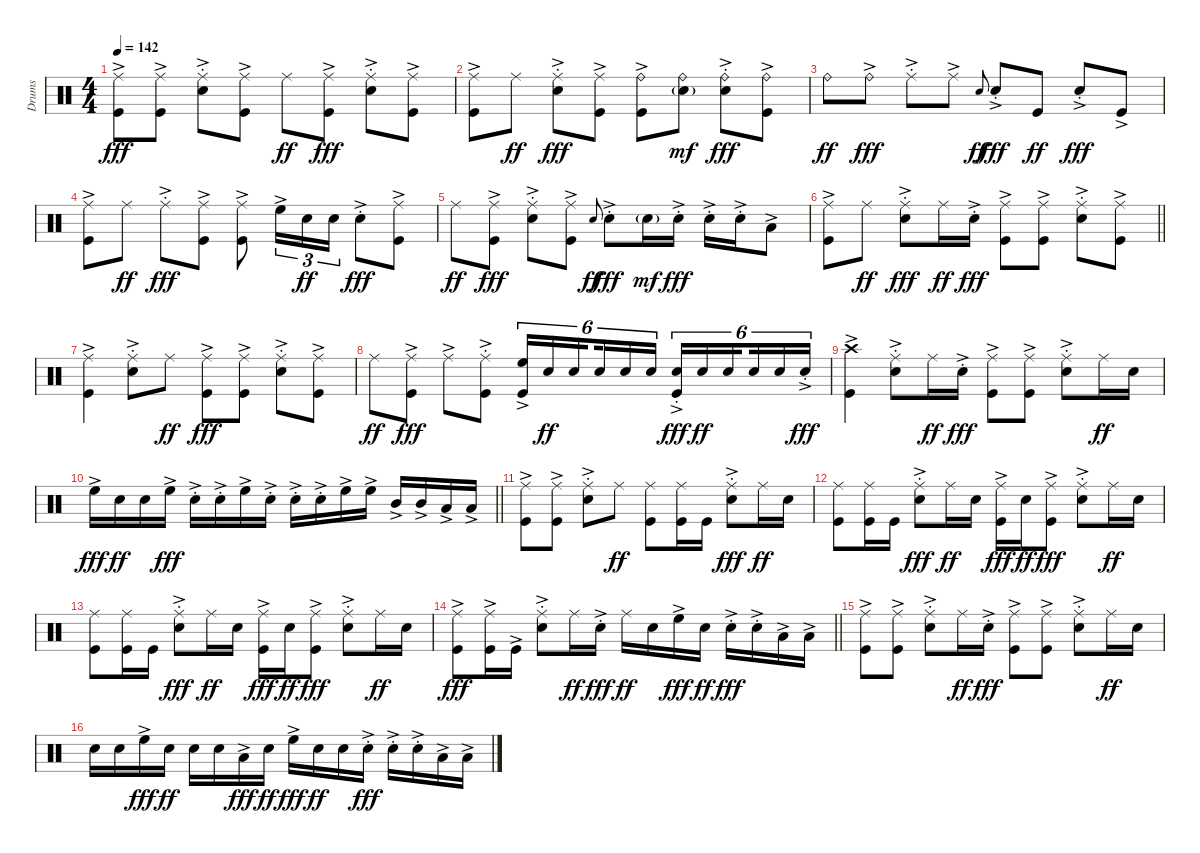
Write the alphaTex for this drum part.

\track ("Drums" "Drums") {instrument percussion}
\staff {score}
\articulation defaults
\ts (4 4)
\tempo 142
\clef neutral
\ks c
("Ride (middle)"{ac} "Kick (hit)"{ac}).8{dy fff} ("Ride (middle)"{ac} "Kick (hit)"{ac}).8 ("Ride (middle)"{ac st} "Snare (hit) 2"{ac st}).8 ("Ride (middle)"{ac} "Kick (hit)"{ac}).8 "Ride (middle)".8{dy ff} ("Ride (middle)"{ac} "Kick (hit)"{ac}).8{dy fff} ("Ride (middle)"{ac st} "Snare (hit) 2"{ac st}).8 ("Ride (middle)"{ac} "Kick (hit)"{ac}).8 |
("Ride (middle)"{ac} "Kick (hit)"{ac}).8 "Ride (middle)".8{dy ff} ("Ride (middle)"{ac st} "Snare (hit) 2"{ac st}).8{dy fff} ("Ride (middle)"{ac} "Kick (hit)"{ac}).8 ("Ride (bell)"{ac} "Kick (hit)"{ac}).8 ("Ride (bell)" "Snare (hit) 2"{g}).8{dy mf} ("Ride (bell)"{ac st} "Snare (hit) 2"{ac st}).8{dy fff} ("Ride (bell)"{ac} "Kick (hit)"{ac}).8 |
"Ride (bell)".8{dy ff} "Ride (bell)"{ac}.8{dy fff} "Ride (middle)"{ac st}.8 "Ride (middle)"{ac}.8 "Snare (hit) 2"{h}.8{gr onbeat dy ff} "Snare (hit) 2"{ac st}.8{dy fff} "Kick (hit)".8{dy ff} "Snare (hit) 2"{ac st}.8{dy fff} "Kick (hit)"{ac}.8 |
("Ride (middle)"{ac} "Kick (hit)"{ac}).8 "Ride (middle)".8{dy ff} "Ride (middle)"{ac st}.8{dy fff} ("Ride (middle)"{ac} "Kick (hit)"{ac}).8 ("Ride (middle)"{ac} "Kick (hit)"{ac}).8 "High Floor Tom (hit)"{ac}.16{tu (3 2)} "Snare (hit) 2".16{tu (3 2) dy ff} "Snare (hit) 2".16{tu (3 2)} "Snare (hit) 2"{ac st}.8{dy fff} ("Ride (middle)"{ac} "Kick (hit)"{ac}).8 |
"Ride (middle)".8{dy ff} ("Ride (middle)"{ac} "Kick (hit)"{ac}).8{dy fff} ("Ride (middle)"{ac st} "Snare (hit) 2"{ac st}).8 ("Ride (middle)"{ac} "Kick (hit)"{ac}).8 "Snare (hit) 2"{h}.8{gr onbeat dy ff} "Snare (hit) 2"{ac st}.8{dy fff} "Snare (hit) 2"{g}.16{dy mf} "Snare (hit) 2"{ac st}.16{dy fff} "Snare (hit) 2"{ac st}.16 "Snare (hit) 2"{ac st}.16 "Low Tom (hit)"{ac}.8 |
\barLineRight lightlight
("Ride (middle)"{ac} "Kick (hit)"{ac}).8 "Ride (middle)".8{dy ff} ("Ride (middle)"{ac st} "Snare (hit) 2"{ac st}).8{dy fff} "Ride (middle)".16{dy ff} "Snare (hit) 2"{ac st}.16{dy fff} ("Ride (middle)"{ac} "Kick (hit)"{ac}).8 ("Ride (middle)"{ac} "Kick (hit)"{ac}).8 ("Ride (middle)"{ac st} "Snare (hit) 2"{ac st}).8 ("Ride (middle)"{ac} "Kick (hit)"{ac}).8 |
("Ride (middle)"{ac} "Kick (hit)"{ac}).4 ("Ride (middle)"{ac st} "Snare (hit) 2"{ac st}).8 "Ride (middle)".8{dy ff} ("Ride (middle)"{ac} "Kick (hit)"{ac}).8{dy fff} ("Ride (middle)"{ac} "Kick (hit)"{ac}).8 ("Ride (middle)"{ac st} "Snare (hit) 2"{ac st}).8 ("Ride (middle)"{ac} "Kick (hit)"{ac}).8 |
"Ride (middle)".8{dy ff} ("Ride (middle)"{ac} "Kick (hit)"{ac}).8{dy fff} "Ride (middle)"{ac}.8 ("Ride (middle)"{ac st} "Kick (hit)"{ac st}).8 ("High Floor Tom (hit)"{ac} "Kick (hit)"{ac}).16{tu (6 4)} "Snare (hit) 2".16{tu (6 4) dy ff} "Snare (hit) 2".16{tu (6 4) beam splitsecondary} "Snare (hit) 2".16{tu (6 4)} "Snare (hit) 2".16{tu (6 4)} "Snare (hit) 2".16{tu (6 4)} ("Snare (hit) 2"{ac st} "Kick (hit)"{ac st}).16{tu (6 4) dy fff} "Snare (hit) 2".16{tu (6 4) dy ff} "Snare (hit) 2".16{tu (6 4) beam splitsecondary} "Snare (hit) 2".16{tu (6 4)} "Snare (hit) 2".16{tu (6 4)} "Snare (hit) 2"{ac st}.16{tu (6 4) dy fff} |
("Crash high (hit)"{ac} "Kick (hit)"{ac}).4 ("Ride (middle)"{ac st} "Snare (hit) 2"{ac st}).8 "Ride (middle)".16{dy ff} "Snare (hit) 2"{ac st}.16{dy fff} ("Ride (middle)"{ac} "Kick (hit)"{ac}).8 ("Ride (middle)"{ac} "Kick (hit)"{ac}).8 ("Ride (middle)"{ac st} "Snare (hit) 2"{ac st}).8 "Ride (middle)".16{dy ff} "Snare (hit) 2".16 |
\barLineRight lightlight "High Floor Tom (hit)"{ac}.16{dy fff} "Snare (hit) 2".16{dy ff} "Snare (hit) 2".16 "High Floor Tom (hit)"{ac}.16{dy fff} "Snare (hit) 2"{ac st}.16 "Snare (hit) 2"{ac st}.16 "High Floor Tom (hit)"{ac}.16 "Snare (hit) 2"{ac st}.16 "Snare (hit) 2"{ac st}.16 "Snare (hit) 2"{ac st}.16 "High Floor Tom (hit)"{ac}.16 "High Floor Tom (hit)"{ac}.16 "Mid Tom (hit)"{ac}.16 "Mid Tom (hit)"{ac}.16 "Low Tom (hit)"{ac}.16 "Low Tom (hit)"{ac}.16
|
("Ride (middle)"{ac} "Kick (hit)"{ac}).8 ("Ride (middle)"{ac} "Kick (hit)"{ac}).8 ("Ride (middle)"{ac st} "Snare (hit) 2"{ac st}).8 "Ride (middle)".8{dy ff} ("Ride (middle)" "Kick (hit)").8 ("Ride (middle)" "Kick (hit)").16 "Kick (hit)".16 ("Ride (middle)"{ac st} "Snare (hit) 2"{ac st}).8{dy fff} "Ride (middle)".16{dy ff} "Snare (hit) 2".16 |
("Ride (middle)" "Kick (hit)").8 ("Ride (middle)" "Kick (hit)").16 "Kick (hit)".16 ("Ride (middle)"{ac st} "Snare (hit) 2"{ac st}).8{dy fff} "Ride (middle)".16{dy ff} "Snare (hit) 2".16 ("Ride (middle)"{ac} "Kick (hit)"{ac}).16{dy fff} "Snare (hit) 2".16{dy ff} ("Ride (middle)"{ac} "Kick (hit)"{ac}).8{dy fff} ("Ride (middle)"{ac st} "Snare (hit) 2"{ac st}).8 "Ride (middle)".16{dy ff} "Snare (hit) 2".16 |
("Ride (middle)" "Kick (hit)").8 ("Ride (middle)" "Kick (hit)").16 "Kick (hit)".16 ("Ride (middle)"{ac st} "Snare (hit) 2"{ac st}).8{dy fff} "Ride (middle)".16{dy ff} "Snare (hit) 2".16 ("Ride (middle)"{ac} "Kick (hit)"{ac}).16{dy fff} "Snare (hit) 2".16{dy ff} ("Ride (middle)"{ac} "Kick (hit)"{ac}).8{dy fff} ("Ride (middle)"{ac st} "Snare (hit) 2"{ac st}).8 "Ride (middle)".16{dy ff} "Snare (hit) 2".16 |
\barLineRight lightlight
("Ride (middle)"{ac} "Kick (hit)"{ac}).8{dy fff} ("Ride (middle)"{ac} "Kick (hit)"{ac}).16 "Kick (hit)"{ac}.16 ("Ride (middle)"{ac st} "Snare (hit) 2"{ac st}).8 "Ride (middle)".16{dy ff} "Snare (hit) 2"{ac st}.16{dy fff} "Ride (middle)".16{dy ff} "Snare (hit) 2".16 "High Floor Tom (hit)"{ac}.16{dy fff} "Snare (hit) 2".16{dy ff} "Snare (hit) 2"{ac st}.16{dy fff} "Snare (hit) 2"{ac st}.16 "Low Tom (hit)"{ac}.16 "Low Tom (hit)"{ac}.16 |
("Ride (middle)"{ac} "Kick (hit)"{ac}).8 ("Ride (middle)"{ac} "Kick (hit)"{ac}).8 ("Ride (middle)"{ac st} "Snare (hit) 2"{ac st}).8 "Ride (middle)".16{dy ff} "Snare (hit) 2"{ac st}.16{dy fff} ("Ride (middle)"{ac} "Kick (hit)"{ac}).8 ("Ride (middle)"{ac} "Kick (hit)"{ac}).8 ("Ride (middle)"{ac st} "Snare (hit) 2"{ac st}).8 "Ride (middle)".16{dy ff} "Snare (hit) 2".16 |
"Snare (hit) 2".16 "Snare (hit) 2".16 "High Floor Tom (hit)"{ac}.16{dy fff} "Snare (hit) 2".16{dy ff} "Snare (hit) 2".16 "Snare (hit) 2".16 "Low Tom (hit)"{ac}.16{dy fff} "Snare (hit) 2".16{dy ff} "High Floor Tom (hit)"{ac}.16{dy fff} "Snare (hit) 2".16{dy ff} "Snare (hit) 2".16 "Snare (hit) 2"{ac st}.16{dy fff} "Snare (hit) 2"{ac st}.16 "Snare (hit) 2"{ac st}.16 "Low Tom (hit)"{ac}.16 "Low Tom (hit)"{ac}.16
